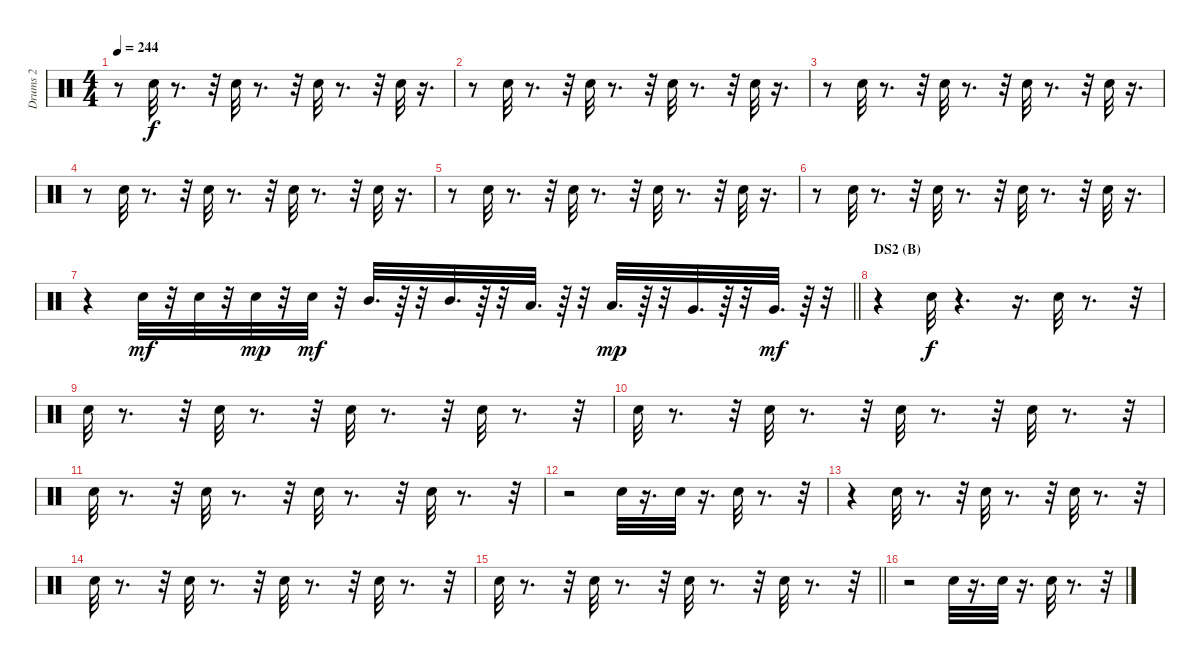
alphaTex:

\track ("Drums 2" "Drums 2") {instrument percussion}
\staff {score}
\articulation defaults
\ts (4 4)
\tempo 244
\clef neutral
\ks c
r.8{dy f} "Electric Snare (hit)".32 r.8{d} r.32 "Electric Snare (hit)".32 r.8{d} r.32 "Electric Snare (hit)".32 r.8{d} r.32 "Electric Snare (hit)".32 r.16{d} |
r.8 "Electric Snare (hit)".32 r.8{d} r.32 "Electric Snare (hit)".32 r.8{d} r.32 "Electric Snare (hit)".32 r.8{d} r.32 "Electric Snare (hit)".32 r.16{d} |
r.8 "Electric Snare (hit)".32 r.8{d} r.32 "Electric Snare (hit)".32 r.8{d} r.32 "Electric Snare (hit)".32 r.8{d} r.32 "Electric Snare (hit)".32 r.16{d} |
r.8 "Electric Snare (hit)".32 r.8{d} r.32 "Electric Snare (hit)".32 r.8{d} r.32 "Electric Snare (hit)".32 r.8{d} r.32 "Electric Snare (hit)".32 r.16{d} |
r.8 "Electric Snare (hit)".32 r.8{d} r.32 "Electric Snare (hit)".32 r.8{d} r.32 "Electric Snare (hit)".32 r.8{d} r.32 "Electric Snare (hit)".32 r.16{d} |
r.8 "Electric Snare (hit)".32 r.8{d} r.32 "Electric Snare (hit)".32 r.8{d} r.32 "Electric Snare (hit)".32 r.8{d} r.32 "Electric Snare (hit)".32 r.16{d} |
\barLineRight lightlight
r.4 "Electric Snare (hit)".32{dy mf} r.32 "Electric Snare (hit)".32 r.32 "Electric Snare (hit)".32{dy mp} r.32 "Electric Snare (hit)".32{dy mf} r.32 "Mid Tom (hit)".32{d} r.64 r.32 "Mid Tom (hit)".32{d} r.64 r.32 "Low Tom (hit)".32{d} r.64 r.32 "Low Tom (hit)".32{d dy mp} r.64 r.32 "Very Low Tom (hit)".32{d} r.64 r.32 "Very Low Tom (hit)".32{d dy mf} r.64 r.32 |
\section ("" "DS2 (B)")
r.4 "Electric Snare (hit)".32{dy f} r.4{d} r.16{d} "Electric Snare (hit)".32 r.8{d} r.32 |
"Electric Snare (hit)".32 r.8{d} r.32 "Electric Snare (hit)".32 r.8{d} r.32 "Electric Snare (hit)".32 r.8{d} r.32 "Electric Snare (hit)".32 r.8{d} r.32 |
"Electric Snare (hit)".32 r.8{d} r.32 "Electric Snare (hit)".32 r.8{d} r.32 "Electric Snare (hit)".32 r.8{d} r.32 "Electric Snare (hit)".32 r.8{d} r.32 |
"Electric Snare (hit)".32 r.8{d} r.32 "Electric Snare (hit)".32 r.8{d} r.32 "Electric Snare (hit)".32 r.8{d} r.32 "Electric Snare (hit)".32 r.8{d} r.32 |
r.2 "Electric Snare (hit)".32 r.16{d} "Electric Snare (hit)".32 r.16{d} "Electric Snare (hit)".32 r.8{d} r.32 |
r.4 "Electric Snare (hit)".32 r.8{d} r.32 "Electric Snare (hit)".32 r.8{d} r.32 "Electric Snare (hit)".32 r.8{d} r.32 |
"Electric Snare (hit)".32 r.8{d} r.32 "Electric Snare (hit)".32 r.8{d} r.32 "Electric Snare (hit)".32 r.8{d} r.32 "Electric Snare (hit)".32 r.8{d} r.32 |
\barLineRight lightlight "Electric Snare (hit)".32
r.8{d} r.32 "Electric Snare (hit)".32 r.8{d} r.32 "Electric Snare (hit)".32 r.8{d} r.32 "Electric Snare (hit)".32 r.8{d} r.32 |
r.2 "Electric Snare (hit)".32 r.16{d} "Electric Snare (hit)".32 r.16{d} "Electric Snare (hit)".32 r.8{d} r.32
